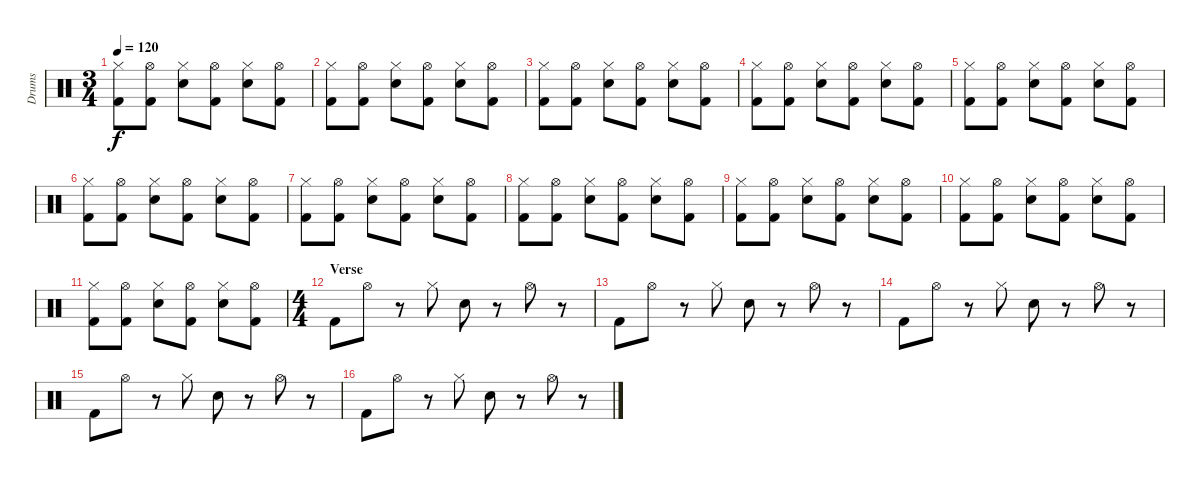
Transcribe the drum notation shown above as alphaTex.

\track ("Drums" "Drums") {instrument percussion}
\staff {score}
\articulation defaults
\ts (3 4)
\tempo 120
\clef neutral
\ks c
("Hi-Hat (closed)" "Kick (hit) 2").8{dy f} ("Hi-Hat (open)" "Kick (hit) 2").8 ("Hi-Hat (closed)" "Snare (hit) 2").8 ("Hi-Hat (open)" "Kick (hit) 2").8 ("Hi-Hat (closed)" "Snare (hit) 2").8 ("Hi-Hat (open)" "Kick (hit) 2").8 |
("Hi-Hat (closed)" "Kick (hit) 2").8 ("Hi-Hat (open)" "Kick (hit) 2").8 ("Hi-Hat (closed)" "Snare (hit) 2").8 ("Hi-Hat (open)" "Kick (hit) 2").8 ("Hi-Hat (closed)" "Snare (hit) 2").8 ("Hi-Hat (open)" "Kick (hit) 2").8 |
("Hi-Hat (closed)" "Kick (hit) 2").8 ("Hi-Hat (open)" "Kick (hit) 2").8 ("Hi-Hat (closed)" "Snare (hit) 2").8 ("Hi-Hat (open)" "Kick (hit) 2").8 ("Hi-Hat (closed)" "Snare (hit) 2").8 ("Hi-Hat (open)" "Kick (hit) 2").8 |
("Hi-Hat (closed)" "Kick (hit) 2").8 ("Hi-Hat (open)" "Kick (hit) 2").8 ("Hi-Hat (closed)" "Snare (hit) 2").8 ("Hi-Hat (open)" "Kick (hit) 2").8 ("Hi-Hat (closed)" "Snare (hit) 2").8 ("Hi-Hat (open)" "Kick (hit) 2").8 |
("Hi-Hat (closed)" "Kick (hit) 2").8 ("Hi-Hat (open)" "Kick (hit) 2").8 ("Hi-Hat (closed)" "Snare (hit) 2").8 ("Hi-Hat (open)" "Kick (hit) 2").8 ("Hi-Hat (closed)" "Snare (hit) 2").8 ("Hi-Hat (open)" "Kick (hit) 2").8 |
("Hi-Hat (closed)" "Kick (hit) 2").8 ("Hi-Hat (open)" "Kick (hit) 2").8 ("Hi-Hat (closed)" "Snare (hit) 2").8 ("Hi-Hat (open)" "Kick (hit) 2").8 ("Hi-Hat (closed)" "Snare (hit) 2").8 ("Hi-Hat (open)" "Kick (hit) 2").8 |
("Hi-Hat (closed)" "Kick (hit) 2").8 ("Hi-Hat (open)" "Kick (hit) 2").8 ("Hi-Hat (closed)" "Snare (hit) 2").8 ("Hi-Hat (open)" "Kick (hit) 2").8 ("Hi-Hat (closed)" "Snare (hit) 2").8 ("Hi-Hat (open)" "Kick (hit) 2").8 |
("Hi-Hat (closed)" "Kick (hit) 2").8 ("Hi-Hat (open)" "Kick (hit) 2").8 ("Hi-Hat (closed)" "Snare (hit) 2").8 ("Hi-Hat (open)" "Kick (hit) 2").8 ("Hi-Hat (closed)" "Snare (hit) 2").8 ("Hi-Hat (open)" "Kick (hit) 2").8 |
("Hi-Hat (closed)" "Kick (hit) 2").8 ("Hi-Hat (open)" "Kick (hit) 2").8 ("Hi-Hat (closed)" "Snare (hit) 2").8 ("Hi-Hat (open)" "Kick (hit) 2").8 ("Hi-Hat (closed)" "Snare (hit) 2").8 ("Hi-Hat (open)" "Kick (hit) 2").8 |
("Hi-Hat (closed)" "Kick (hit) 2").8 ("Hi-Hat (open)" "Kick (hit) 2").8 ("Hi-Hat (closed)" "Snare (hit) 2").8 ("Hi-Hat (open)" "Kick (hit) 2").8 ("Hi-Hat (closed)" "Snare (hit) 2").8 ("Hi-Hat (open)" "Kick (hit) 2").8 |
("Hi-Hat (closed)" "Kick (hit) 2").8 ("Hi-Hat (open)" "Kick (hit) 2").8 ("Hi-Hat (closed)" "Snare (hit) 2").8 ("Hi-Hat (open)" "Kick (hit) 2").8 ("Hi-Hat (closed)" "Snare (hit) 2").8 ("Hi-Hat (open)" "Kick (hit) 2").8 |
\ts (4 4)
\section ("" "Verse")
"Kick (hit) 2".8 "Hi-Hat (open)".8 r.8 "Hi-Hat (closed)".8 "Snare (hit) 2".8 r.8 "Hi-Hat (open)".8 r.8 |
"Kick (hit) 2".8 "Hi-Hat (open)".8 r.8 "Hi-Hat (closed)".8 "Snare (hit) 2".8 r.8 "Hi-Hat (open)".8 r.8 |
"Kick (hit) 2".8 "Hi-Hat (open)".8 r.8 "Hi-Hat (closed)".8 "Snare (hit) 2".8 r.8 "Hi-Hat (open)".8 r.8 |
"Kick (hit) 2".8 "Hi-Hat (open)".8 r.8 "Hi-Hat (closed)".8 "Snare (hit) 2".8 r.8 "Hi-Hat (open)".8 r.8 |
"Kick (hit) 2".8 "Hi-Hat (open)".8 r.8 "Hi-Hat (closed)".8 "Snare (hit) 2".8 r.8 "Hi-Hat (open)".8 r.8
